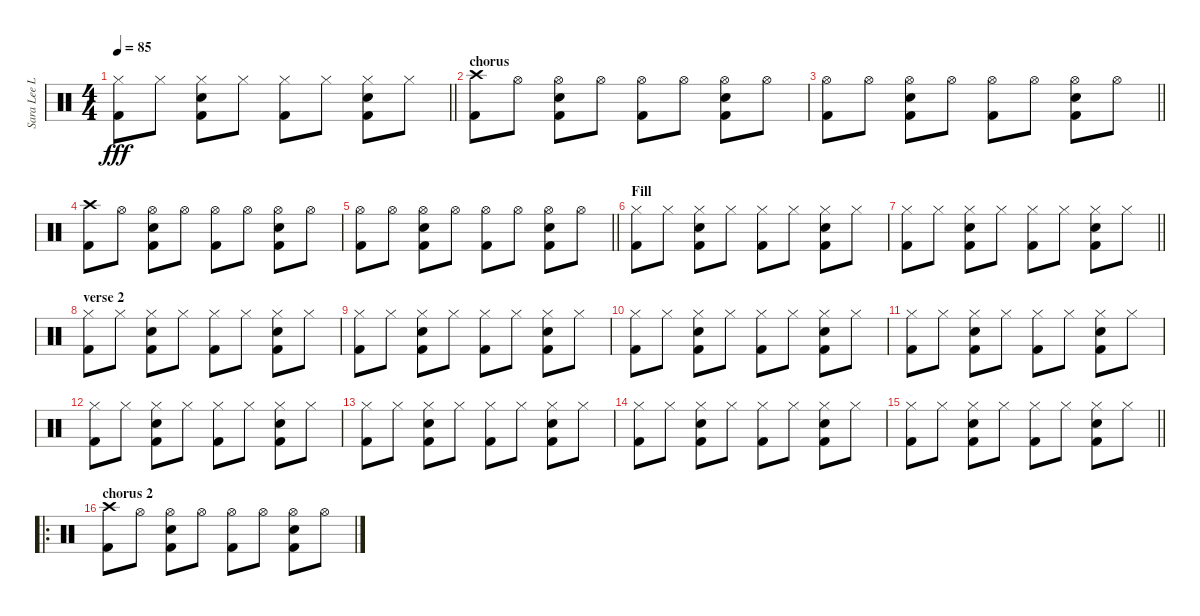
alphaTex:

\track ("Sara Lee Lucas" "Sara Lee L") {instrument percussion}
\staff {score}
\articulation defaults
\ts (4 4)
\tempo 85
\clef neutral
\barLineRight lightlight
\ks c
("Hi-Hat (closed)" "Kick (hit) 2").8{dy fff} "Hi-Hat (closed)".8 ("Hi-Hat (closed)" "Snare (hit) 2" "Kick (hit) 2").8 "Hi-Hat (closed)".8 ("Hi-Hat (closed)" "Kick (hit) 2").8 "Hi-Hat (closed)".8 ("Hi-Hat (closed)" "Snare (hit) 2" "Kick (hit) 2").8 "Hi-Hat (closed)".8 |
\section ("" "chorus")
("Crash high (hit)" "Kick (hit) 2").8 "Hi-Hat (open)".8 ("Hi-Hat (open)" "Snare (hit) 2" "Kick (hit) 2").8 "Hi-Hat (open)".8 ("Hi-Hat (open)" "Kick (hit) 2").8 "Hi-Hat (open)".8 ("Hi-Hat (open)" "Snare (hit) 2" "Kick (hit) 2").8 "Hi-Hat (open)".8 |
\barLineRight lightlight
("Hi-Hat (open)" "Kick (hit) 2").8 "Hi-Hat (open)".8 ("Hi-Hat (open)" "Snare (hit) 2" "Kick (hit) 2").8 "Hi-Hat (open)".8 ("Hi-Hat (open)" "Kick (hit) 2").8 "Hi-Hat (open)".8 ("Hi-Hat (open)" "Snare (hit) 2" "Kick (hit) 2").8 "Hi-Hat (open)".8 |
("Crash high (hit)" "Kick (hit) 2").8 "Hi-Hat (open)".8 ("Hi-Hat (open)" "Snare (hit) 2" "Kick (hit) 2").8 "Hi-Hat (open)".8 ("Hi-Hat (open)" "Kick (hit) 2").8 "Hi-Hat (open)".8 ("Hi-Hat (open)" "Snare (hit) 2" "Kick (hit) 2").8 "Hi-Hat (open)".8 |
\barLineRight lightlight
("Hi-Hat (open)" "Kick (hit) 2").8 "Hi-Hat (open)".8 ("Hi-Hat (open)" "Snare (hit) 2" "Kick (hit) 2").8 "Hi-Hat (open)".8 ("Hi-Hat (open)" "Kick (hit) 2").8 "Hi-Hat (open)".8 ("Hi-Hat (open)" "Snare (hit) 2" "Kick (hit) 2").8 "Hi-Hat (open)".8 |
\section ("" "Fill")
("Hi-Hat (closed)" "Kick (hit) 2").8 "Hi-Hat (closed)".8 ("Hi-Hat (closed)" "Snare (hit) 2" "Kick (hit) 2").8 "Hi-Hat (closed)".8 ("Hi-Hat (closed)" "Kick (hit) 2").8 "Hi-Hat (closed)".8 ("Hi-Hat (closed)" "Snare (hit) 2" "Kick (hit) 2").8 "Hi-Hat (closed)".8 |
\barLineRight lightlight
("Hi-Hat (closed)" "Kick (hit) 2").8 "Hi-Hat (closed)".8 ("Hi-Hat (closed)" "Snare (hit) 2" "Kick (hit) 2").8 "Hi-Hat (closed)".8 ("Hi-Hat (closed)" "Kick (hit) 2").8 "Hi-Hat (closed)".8 ("Hi-Hat (closed)" "Snare (hit) 2" "Kick (hit) 2").8 "Hi-Hat (closed)".8 |
\section ("" "verse 2")
("Hi-Hat (closed)" "Kick (hit) 2").8 "Hi-Hat (closed)".8 ("Hi-Hat (closed)" "Snare (hit) 2" "Kick (hit) 2").8 "Hi-Hat (closed)".8 ("Hi-Hat (closed)" "Kick (hit) 2").8 "Hi-Hat (closed)".8 ("Hi-Hat (closed)" "Snare (hit) 2" "Kick (hit) 2").8 "Hi-Hat (closed)".8 |
("Hi-Hat (closed)" "Kick (hit) 2").8 "Hi-Hat (closed)".8 ("Hi-Hat (closed)" "Snare (hit) 2" "Kick (hit) 2").8 "Hi-Hat (closed)".8 ("Hi-Hat (closed)" "Kick (hit) 2").8 "Hi-Hat (closed)".8 ("Hi-Hat (closed)" "Snare (hit) 2" "Kick (hit) 2").8 "Hi-Hat (closed)".8 |
("Hi-Hat (closed)" "Kick (hit) 2").8 "Hi-Hat (closed)".8 ("Hi-Hat (closed)" "Snare (hit) 2" "Kick (hit) 2").8 "Hi-Hat (closed)".8 ("Hi-Hat (closed)" "Kick (hit) 2").8 "Hi-Hat (closed)".8 ("Hi-Hat (closed)" "Snare (hit) 2" "Kick (hit) 2").8 "Hi-Hat (closed)".8 |
("Hi-Hat (closed)" "Kick (hit) 2").8 "Hi-Hat (closed)".8 ("Hi-Hat (closed)" "Snare (hit) 2" "Kick (hit) 2").8 "Hi-Hat (closed)".8 ("Hi-Hat (closed)" "Kick (hit) 2").8 "Hi-Hat (closed)".8 ("Hi-Hat (closed)" "Snare (hit) 2" "Kick (hit) 2").8 "Hi-Hat (closed)".8 |
("Hi-Hat (closed)" "Kick (hit) 2").8 "Hi-Hat (closed)".8 ("Hi-Hat (closed)" "Snare (hit) 2" "Kick (hit) 2").8 "Hi-Hat (closed)".8 ("Hi-Hat (closed)" "Kick (hit) 2").8 "Hi-Hat (closed)".8 ("Hi-Hat (closed)" "Snare (hit) 2" "Kick (hit) 2").8 "Hi-Hat (closed)".8 |
("Hi-Hat (closed)" "Kick (hit) 2").8 "Hi-Hat (closed)".8 ("Hi-Hat (closed)" "Snare (hit) 2" "Kick (hit) 2").8 "Hi-Hat (closed)".8 ("Hi-Hat (closed)" "Kick (hit) 2").8 "Hi-Hat (closed)".8 ("Hi-Hat (closed)" "Snare (hit) 2" "Kick (hit) 2").8 "Hi-Hat (closed)".8 |
("Hi-Hat (closed)" "Kick (hit) 2").8 "Hi-Hat (closed)".8 ("Hi-Hat (closed)" "Snare (hit) 2" "Kick (hit) 2").8 "Hi-Hat (closed)".8 ("Hi-Hat (closed)" "Kick (hit) 2").8 "Hi-Hat (closed)".8 ("Hi-Hat (closed)" "Snare (hit) 2" "Kick (hit) 2").8 "Hi-Hat (closed)".8 |
\barLineRight lightlight
("Hi-Hat (closed)" "Kick (hit) 2").8 "Hi-Hat (closed)".8 ("Hi-Hat (closed)" "Snare (hit) 2" "Kick (hit) 2").8 "Hi-Hat (closed)".8 ("Hi-Hat (closed)" "Kick (hit) 2").8 "Hi-Hat (closed)".8 ("Hi-Hat (closed)" "Snare (hit) 2" "Kick (hit) 2").8 "Hi-Hat (closed)".8 |
\ro
\section ("" "chorus 2")
("Crash high (hit)" "Kick (hit) 2").8 "Hi-Hat (open)".8 ("Hi-Hat (open)" "Snare (hit) 2" "Kick (hit) 2").8 "Hi-Hat (open)".8 ("Hi-Hat (open)" "Kick (hit) 2").8 "Hi-Hat (open)".8 ("Hi-Hat (open)" "Snare (hit) 2" "Kick (hit) 2").8 "Hi-Hat (open)".8
